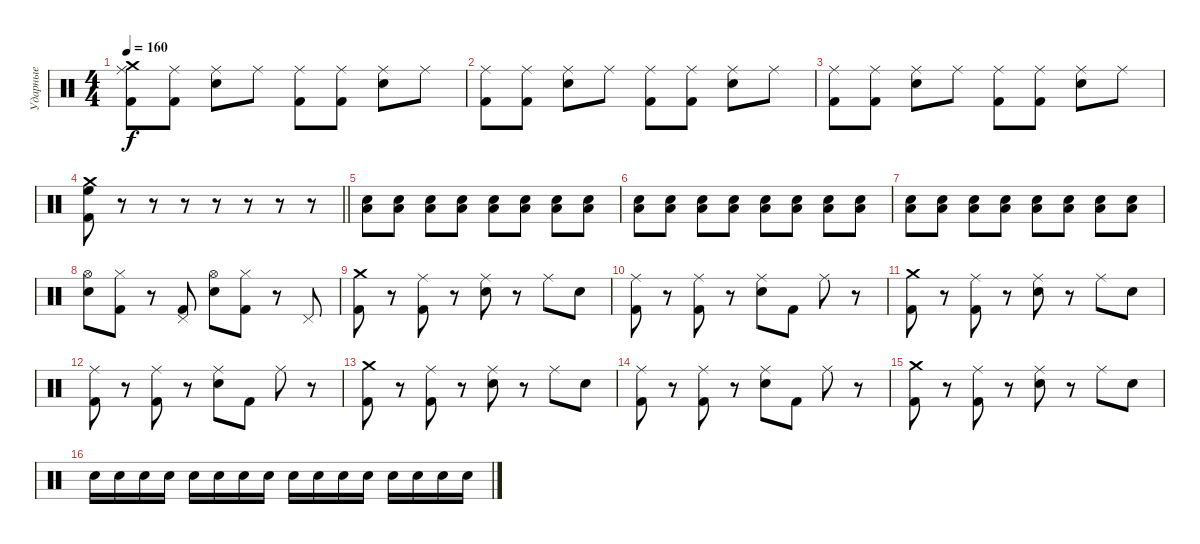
\track ("Ударные" "Ударные") {instrument percussion}
\staff {score}
\articulation defaults
\ts (4 4)
\tempo 160
\clef neutral
\ks c
("Crash medium (hit)" "Ride (middle)" "Kick (hit) 2").8{dy f} ("Ride (middle)" "Kick (hit) 2").8 ("Ride (middle)" "Snare (hit) 2").8 "Ride (middle)".8 ("Ride (middle)" "Kick (hit) 2").8 ("Ride (middle)" "Kick (hit) 2").8 ("Ride (middle)" "Snare (hit) 2").8 "Ride (middle)".8 |
("Ride (middle)" "Kick (hit) 2").8 ("Ride (middle)" "Kick (hit) 2").8 ("Ride (middle)" "Snare (hit) 2").8 "Ride (middle)".8 ("Ride (middle)" "Kick (hit) 2").8 ("Ride (middle)" "Kick (hit) 2").8 ("Ride (middle)" "Snare (hit) 2").8 "Ride (middle)".8 |
("Ride (middle)" "Kick (hit) 2").8 ("Ride (middle)" "Kick (hit) 2").8 ("Ride (middle)" "Snare (hit) 2").8 "Ride (middle)".8 ("Ride (middle)" "Kick (hit) 2").8 ("Ride (middle)" "Kick (hit) 2").8 ("Ride (middle)" "Snare (hit) 2").8 "Ride (middle)".8 |
\barLineRight lightlight
("Crash medium (hit)" "High Floor Tom (hit)" "Kick (hit) 2").8 r.8 r.8 r.8 r.8 r.8 r.8 r.8 |
("Snare (hit) 2" "Low Floor Tom (hit)").8 ("Snare (hit) 2" "Low Floor Tom (hit)").8 ("Snare (hit) 2" "Low Floor Tom (hit)").8 ("Snare (hit) 2" "Low Floor Tom (hit)").8 ("Snare (hit) 2" "Low Floor Tom (hit)").8 ("Snare (hit) 2" "Low Floor Tom (hit)").8 ("Snare (hit) 2" "Low Floor Tom (hit)").8 ("Snare (hit) 2" "Low Floor Tom (hit)").8 |
("Snare (hit) 2" "Low Floor Tom (hit)").8 ("Snare (hit) 2" "Low Floor Tom (hit)").8 ("Snare (hit) 2" "Low Floor Tom (hit)").8 ("Snare (hit) 2" "Low Floor Tom (hit)").8 ("Snare (hit) 2" "Low Floor Tom (hit)").8 ("Snare (hit) 2" "Low Floor Tom (hit)").8 ("Snare (hit) 2" "Low Floor Tom (hit)").8 ("Snare (hit) 2" "Low Floor Tom (hit)").8 |
("Snare (hit) 2" "Low Floor Tom (hit)").8 ("Snare (hit) 2" "Low Floor Tom (hit)").8 ("Snare (hit) 2" "Low Floor Tom (hit)").8 ("Snare (hit) 2" "Low Floor Tom (hit)").8 ("Snare (hit) 2" "Low Floor Tom (hit)").8 ("Snare (hit) 2" "Low Floor Tom (hit)").8 ("Snare (hit) 2" "Low Floor Tom (hit)").8 ("Snare (hit) 2" "Low Floor Tom (hit)").8 |
("Snare (hit) 2" "Hi-Hat (open)").8 ("Kick (hit) 2" "Hi-Hat (closed)").8 r.8 ("Kick (hit) 2" "Pedal Hi-Hat (hit)").8 ("Snare (hit) 2" "Hi-Hat (open)").8 ("Kick (hit) 2" "Hi-Hat (closed)").8 r.8 "Pedal Hi-Hat (hit)".8 |
("Kick (hit) 2" "Crash medium (hit)").8 r.8 ("Ride (middle)" "Kick (hit) 2").8 r.8 ("Ride (middle)" "Snare (hit) 2").8 r.8 "Ride (middle)".8 "Snare (hit) 2".8 |
("Ride (middle)" "Kick (hit) 2").8 r.8 ("Ride (middle)" "Kick (hit) 2").8 r.8 ("Ride (middle)" "Snare (hit) 2").8 "Kick (hit) 2".8 "Ride (middle)".8 r.8 |
("Kick (hit) 2" "Crash medium (hit)").8 r.8 ("Ride (middle)" "Kick (hit) 2").8 r.8 ("Ride (middle)" "Snare (hit) 2").8 r.8 "Ride (middle)".8 "Snare (hit) 2".8 |
("Ride (middle)" "Kick (hit) 2").8 r.8 ("Ride (middle)" "Kick (hit) 2").8 r.8 ("Ride (middle)" "Snare (hit) 2").8 "Kick (hit) 2".8 "Ride (middle)".8 r.8 |
("Kick (hit) 2" "Crash medium (hit)").8 r.8 ("Ride (middle)" "Kick (hit) 2").8 r.8 ("Ride (middle)" "Snare (hit) 2").8 r.8 "Ride (middle)".8 "Snare (hit) 2".8 |
("Ride (middle)" "Kick (hit) 2").8 r.8 ("Ride (middle)" "Kick (hit) 2").8 r.8 ("Ride (middle)" "Snare (hit) 2").8 "Kick (hit) 2".8 "Ride (middle)".8 r.8 |
("Kick (hit) 2" "Crash medium (hit)").8 r.8 ("Ride (middle)" "Kick (hit) 2").8 r.8 ("Ride (middle)" "Snare (hit) 2").8 r.8 "Ride (middle)".8 "Snare (hit) 2".8 |
"Snare (hit) 2".16 "Snare (hit) 2".16 "Snare (hit) 2".16 "Snare (hit) 2".16 "Snare (hit) 2".16 "Snare (hit) 2".16 "Snare (hit) 2".16 "Snare (hit) 2".16 "Snare (hit) 2".16 "Snare (hit) 2".16 "Snare (hit) 2".16 "Snare (hit) 2".16 "Snare (hit) 2".16 "Snare (hit) 2".16 "Snare (hit) 2".16 "Snare (hit) 2".16
